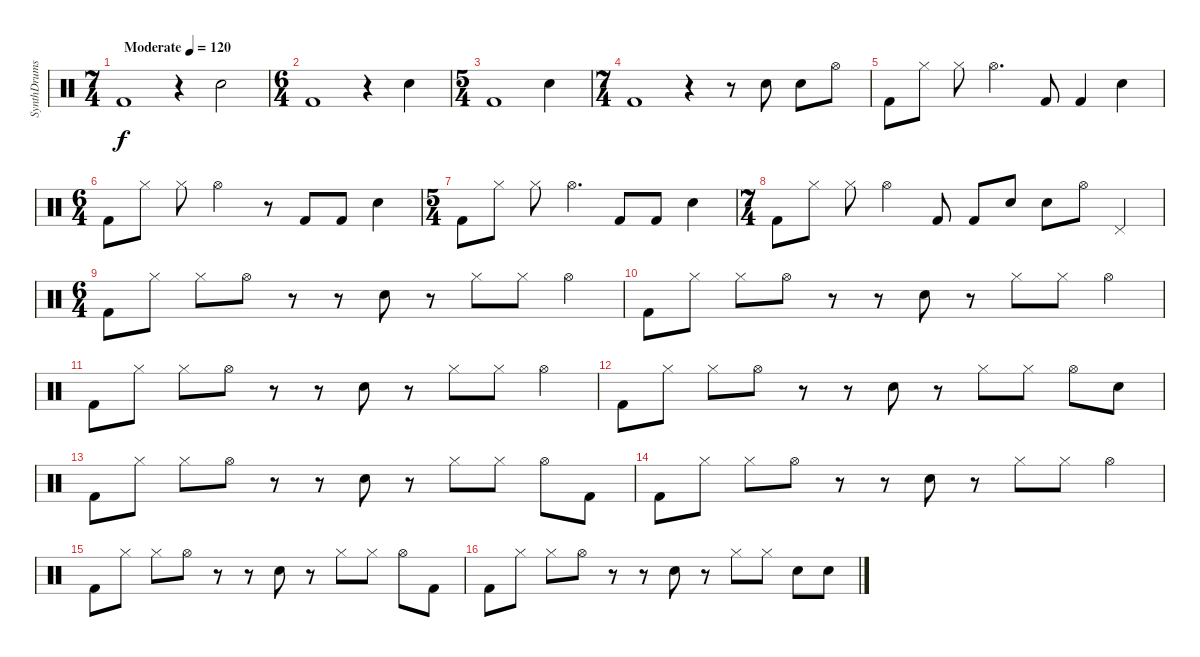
\track ("SynthDrums" "SynthDrums") {instrument percussion}
\staff {score}
\articulation defaults
\ts (7 4)
\tempo (120 "Moderate")
\clef neutral
\ks c "Kick (hit) 2".1{dy f}
r.4 "Electric Snare (hit)".2 |
\ts (6 4)
"Kick (hit) 2".1 r.4 "Electric Snare (hit)".4 |
\ts (5 4)
"Kick (hit) 2".1 "Electric Snare (hit)".4 |
\ts (7 4)
"Kick (hit) 2".1 r.4 r.8 "Electric Snare (hit)".8 "Electric Snare (hit)".8 "Hi-Hat (open)".8 |
"Kick (hit) 2".8 "Hi-Hat (closed)".8 "Hi-Hat (closed)".8 "Hi-Hat (open)".2{d} "Kick (hit) 2".8 "Kick (hit) 2".4 "Electric Snare (hit)".4 |
\ts (6 4)
"Kick (hit) 2".8 "Hi-Hat (closed)".8 "Hi-Hat (closed)".8 "Hi-Hat (open)".2 r.8 "Kick (hit) 2".8 "Kick (hit) 2".8 "Electric Snare (hit)".4 |
\ts (5 4)
"Kick (hit) 2".8 "Hi-Hat (closed)".8 "Hi-Hat (closed)".8 "Hi-Hat (open)".4{d} "Kick (hit) 2".8 "Kick (hit) 2".8 "Electric Snare (hit)".4 |
\ts (7 4)
"Kick (hit) 2".8 "Hi-Hat (closed)".8 "Hi-Hat (closed)".8 "Hi-Hat (open)".2 "Kick (hit) 2".8 "Kick (hit) 2".8 "Electric Snare (hit)".8 "Electric Snare (hit)".8 "Hi-Hat (open)".8 "Pedal Hi-Hat (hit)".4 |
\ts (6 4)
"Kick (hit) 2".8 "Hi-Hat (closed)".8 "Hi-Hat (closed)".8 "Hi-Hat (open)".8 r.8 r.8 "Electric Snare (hit)".8 r.8 "Hi-Hat (closed)".8 "Hi-Hat (closed)".8 "Hi-Hat (open)".4 |
"Kick (hit) 2".8 "Hi-Hat (closed)".8 "Hi-Hat (closed)".8 "Hi-Hat (open)".8 r.8 r.8 "Electric Snare (hit)".8 r.8 "Hi-Hat (closed)".8 "Hi-Hat (closed)".8 "Hi-Hat (open)".4 |
"Kick (hit) 2".8 "Hi-Hat (closed)".8 "Hi-Hat (closed)".8 "Hi-Hat (open)".8 r.8 r.8 "Electric Snare (hit)".8 r.8 "Hi-Hat (closed)".8 "Hi-Hat (closed)".8 "Hi-Hat (open)".4 |
"Kick (hit) 2".8 "Hi-Hat (closed)".8 "Hi-Hat (closed)".8 "Hi-Hat (open)".8 r.8 r.8 "Electric Snare (hit)".8 r.8 "Hi-Hat (closed)".8 "Hi-Hat (closed)".8 "Hi-Hat (open)".8 "Electric Snare (hit)".8 |
"Kick (hit) 2".8 "Hi-Hat (closed)".8 "Hi-Hat (closed)".8 "Hi-Hat (open)".8 r.8 r.8 "Electric Snare (hit)".8 r.8 "Hi-Hat (closed)".8 "Hi-Hat (closed)".8 "Hi-Hat (open)".8 "Kick (hit) 2".8 |
"Kick (hit) 2".8 "Hi-Hat (closed)".8 "Hi-Hat (closed)".8 "Hi-Hat (open)".8 r.8 r.8 "Electric Snare (hit)".8 r.8 "Hi-Hat (closed)".8 "Hi-Hat (closed)".8 "Hi-Hat (open)".4 |
"Kick (hit) 2".8 "Hi-Hat (closed)".8 "Hi-Hat (closed)".8 "Hi-Hat (open)".8 r.8 r.8 "Electric Snare (hit)".8 r.8 "Hi-Hat (closed)".8 "Hi-Hat (closed)".8 "Hi-Hat (open)".8 "Kick (hit) 2".8 |
"Kick (hit) 2".8 "Hi-Hat (closed)".8 "Hi-Hat (closed)".8 "Hi-Hat (open)".8 r.8 r.8 "Electric Snare (hit)".8 r.8 "Hi-Hat (closed)".8 "Hi-Hat (closed)".8 "Electric Snare (hit)".8 "Electric Snare (hit)".8
